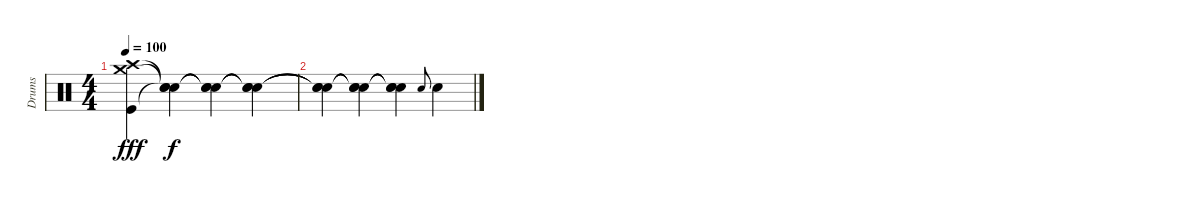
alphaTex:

\track ("Drums" "Drums") {instrument percussion}
\staff {score}
\articulation defaults
\ts (4 4)
\tempo 100
\clef neutral
\ks c
("Crash high (hit)" "Crash medium (hit)" "Kick (hit)").4{dy fff} ("Snare (hit)"{t} "Snare (hit)"{t} "Snare (hit)"{t}).4{dy f} ("Snare (hit)"{t} "Snare (hit)"{t} "Snare (hit)"{t}).4 ("Snare (hit)"{t} "Snare (hit)"{t} "Snare (hit)"{t}).4 |
("Snare (hit)"{t} "Snare (hit)"{t} "Snare (hit)"{t}).4 ("Snare (hit)"{t} "Snare (hit)"{t} "Snare (hit)"{t}).4 ("Snare (hit)"{t} "Snare (hit)"{t} "Snare (hit)"{t}).4 "Electric Snare (hit)".8{gr onbeat} "Electric Snare (hit)".4
